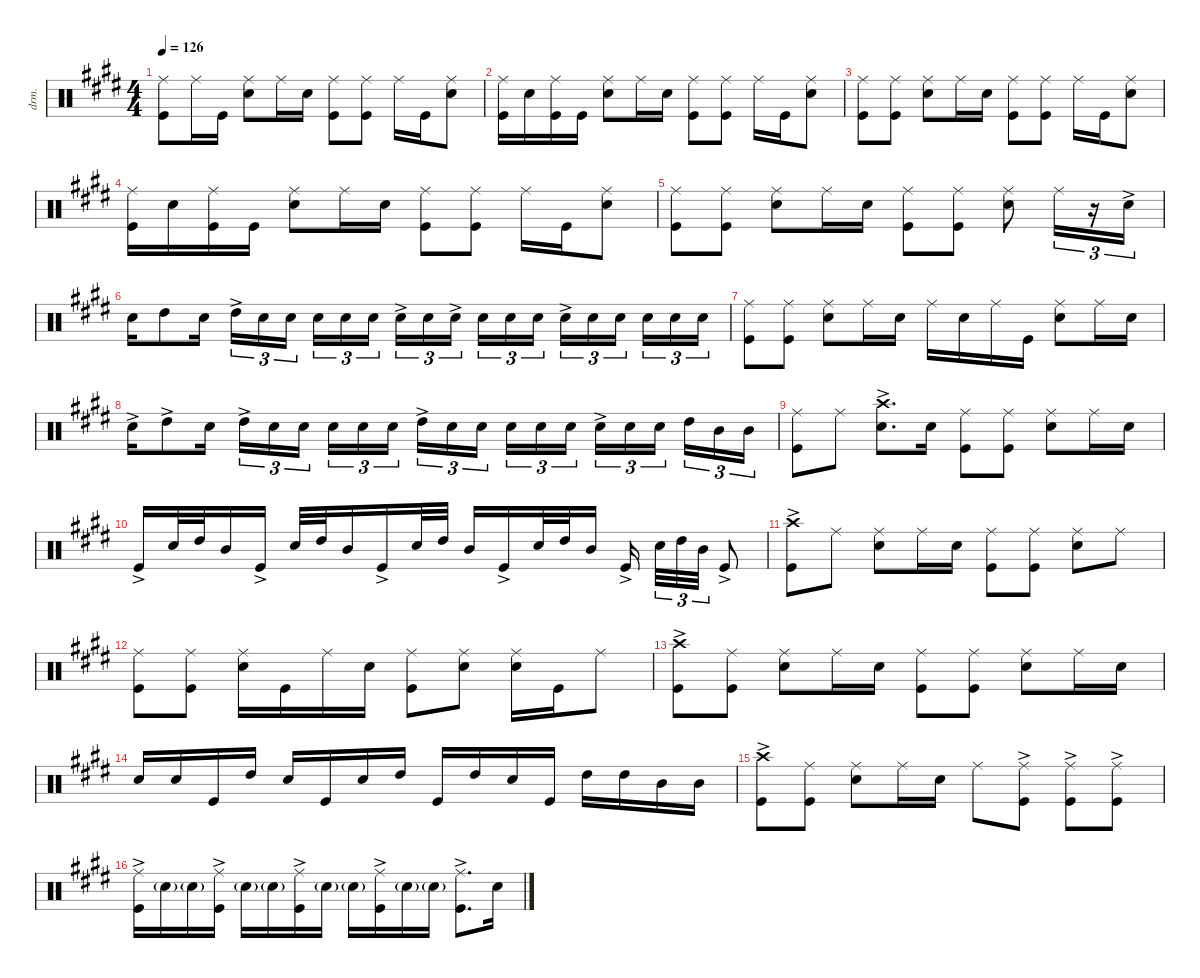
\defaultSystemsLayout 4
\hideDynamics
\bracketExtendMode nobrackets
\otherSystemsTrackNameOrientation horizontal
\track ("Mitch" "drm.") {instrument percussion}
\staff {score}
\articulation defaults
\ts (4 4)
\tempo 126
\clef neutral
\ks e
("Ride (middle)"{acc forcenatural} "Kick (hit)"{acc forcenatural}).8{dy ff beam Down} "Ride (middle)"{acc forcenatural}.16{beam Down} "Kick (hit)"{acc forcenatural}.16{beam Down} ("Ride (middle)"{acc forcenatural} "Snare (hit) 2"{acc forcenatural}).8{beam Down} "Ride (middle)"{acc forcenatural}.16{beam Down} "Snare (hit) 2"{acc forcenatural}.16{beam Down} ("Ride (middle)"{acc forcenatural} "Kick (hit)"{acc forcenatural}).8{beam Down} ("Ride (middle)"{acc forcenatural} "Kick (hit)"{acc forcenatural}).8{beam Down} "Ride (middle)"{acc forcenatural}.16{beam Down} "Kick (hit)"{acc forcenatural}.16{beam Down} ("Ride (middle)"{acc forcenatural} "Snare (hit) 2"{acc forcenatural}).8{beam Down} |
("Ride (middle)"{acc forcenatural} "Kick (hit)"{acc forcenatural}).16{beam Down} "Snare (hit) 2"{acc forcenatural}.16{beam Down} ("Ride (middle)"{acc forcenatural} "Kick (hit)"{acc forcenatural}).16{beam Down} "Kick (hit)"{acc forcenatural}.16{beam Down} ("Ride (middle)"{acc forcenatural} "Snare (hit) 2"{acc forcenatural}).8{beam Down} "Ride (middle)"{acc forcenatural}.16{beam Down} "Snare (hit) 2"{acc forcenatural}.16{beam Down} ("Ride (middle)"{acc forcenatural} "Kick (hit)"{acc forcenatural}).8{beam Down} ("Ride (middle)"{acc forcenatural} "Kick (hit)"{acc forcenatural}).8{beam Down} "Ride (middle)"{acc forcenatural}.16{beam Down} "Kick (hit)"{acc forcenatural}.16{beam Down} ("Ride (middle)"{acc forcenatural} "Snare (hit) 2"{acc forcenatural}).8{beam Down} |
("Ride (middle)"{acc forcenatural} "Kick (hit)"{acc forcenatural}).8{beam Down} ("Ride (middle)"{acc forcenatural} "Kick (hit)"{acc forcenatural}).8{beam Down} ("Ride (middle)"{acc forcenatural} "Snare (hit) 2"{acc forcenatural}).8{beam Down} "Ride (middle)"{acc forcenatural}.16{beam Down} "Snare (hit) 2"{acc forcenatural}.16{beam Down} ("Ride (middle)"{acc forcenatural} "Kick (hit)"{acc forcenatural}).8{beam Down} ("Ride (middle)"{acc forcenatural} "Kick (hit)"{acc forcenatural}).8{beam Down} "Ride (middle)"{acc forcenatural}.16{beam Down} "Kick (hit)"{acc forcenatural}.16{beam Down} ("Ride (middle)"{acc forcenatural} "Snare (hit) 2"{acc forcenatural}).8{beam Down} |
("Ride (middle)"{acc forcenatural} "Kick (hit)"{acc forcenatural}).16{beam Down} "Snare (hit) 2"{acc forcenatural}.16{beam Down} ("Ride (middle)"{acc forcenatural} "Kick (hit)"{acc forcenatural}).16{beam Down} "Kick (hit)"{acc forcenatural}.16{beam Down} ("Ride (middle)"{acc forcenatural} "Snare (hit) 2"{acc forcenatural}).8{beam Down} "Ride (middle)"{acc forcenatural}.16{beam Down} "Snare (hit) 2"{acc forcenatural}.16{beam Down} ("Ride (middle)"{acc forcenatural} "Kick (hit)"{acc forcenatural}).8{beam Down} ("Ride (middle)"{acc forcenatural} "Kick (hit)"{acc forcenatural}).8{beam Down} "Ride (middle)"{acc forcenatural}.16{beam Down} "Kick (hit)"{acc forcenatural}.16{beam Down} ("Ride (middle)"{acc forcenatural} "Snare (hit) 2"{acc forcenatural}).8{beam Down} |
("Ride (middle)"{acc forcenatural} "Kick (hit)"{acc forcenatural}).8{beam Down} ("Ride (middle)"{acc forcenatural} "Kick (hit)"{acc forcenatural}).8{beam Down} ("Ride (middle)"{acc forcenatural} "Snare (hit) 2"{acc forcenatural}).8{beam Down} "Ride (middle)"{acc forcenatural}.16{beam Down} "Snare (hit) 2"{acc forcenatural}.16{beam Down} ("Ride (middle)"{acc forcenatural} "Kick (hit)"{acc forcenatural}).8{beam Down} ("Ride (middle)"{acc forcenatural} "Kick (hit)"{acc forcenatural}).8{beam Down} ("Ride (middle)"{acc forcenatural} "Snare (hit) 2"{acc forcenatural}).8{beam Down} "Ride (middle)"{acc forcenatural}.16{tu (3 2) beam Down} r.16{tu (3 2) beam Down} "Snare (hit) 2"{ac acc forcenatural}.16{tu (3 2) beam Down} |
"Snare (hit) 2"{acc forcenatural}.16{beam Down} "High Tom (hit)"{acc forcenatural}.8{beam Down} "Snare (hit) 2"{acc forcenatural}.16{beam Down} "High Tom (hit)"{ac acc forcenatural}.16{tu (3 2) beam Down} "Snare (hit) 2"{acc forcenatural}.16{tu (3 2) beam Down} "Snare (hit) 2"{acc forcenatural}.16{tu (3 2) beam Down} "Snare (hit) 2"{acc forcenatural}.16{tu (3 2) beam Down} "Snare (hit) 2"{acc forcenatural}.16{tu (3 2) beam Down} "Snare (hit) 2"{acc forcenatural}.16{tu (3 2) beam Down} "Snare (hit) 2"{ac acc forcenatural}.16{tu (3 2) beam Down} "Snare (hit) 2"{acc forcenatural}.16{tu (3 2) beam Down} "Snare (hit) 2"{ac acc forcenatural}.16{tu (3 2) beam Down} "Snare (hit) 2"{acc forcenatural}.16{tu (3 2) beam Down} "Snare (hit) 2"{acc forcenatural}.16{tu (3 2) beam Down} "Snare (hit) 2"{acc forcenatural}.16{tu (3 2) beam Down} "Snare (hit) 2"{ac acc forcenatural}.16{tu (3 2) beam Down} "Snare (hit) 2"{acc forcenatural}.16{tu (3 2) beam Down} "Snare (hit) 2"{acc forcenatural}.16{tu (3 2) beam Down} "Snare (hit) 2"{acc forcenatural}.16{tu (3 2) beam Down} "Snare (hit) 2"{acc forcenatural}.16{tu (3 2) beam Down} "Snare (hit) 2"{acc forcenatural}.16{tu (3 2) beam Down} |
("Ride (middle)"{acc forcenatural} "Kick (hit)"{acc forcenatural}).8{beam Down} ("Ride (middle)"{acc forcenatural} "Kick (hit)"{acc forcenatural}).8{beam Down} ("Ride (middle)"{acc forcenatural} "Snare (hit) 2"{acc forcenatural}).8{beam Down} "Ride (middle)"{acc forcenatural}.16{beam Down} "Snare (hit) 2"{acc forcenatural}.16{beam Down} "Ride (middle)"{acc forcenatural}.16{beam Down} "Snare (hit) 2"{acc forcenatural}.16{beam Down} "Ride (middle)"{acc forcenatural}.16{beam Down} "Kick (hit)"{acc forcenatural}.16{beam Down} ("Ride (middle)"{acc forcenatural} "Snare (hit) 2"{acc forcenatural}).8{beam Down} "Ride (middle)"{acc forcenatural}.16{beam Down} "Snare (hit) 2"{acc forcenatural}.16{beam Down} |
"Snare (hit) 2"{ac acc forcenatural}.16{beam Down} "High Tom (hit)"{ac acc forcenatural}.8{beam Down} "Snare (hit) 2"{acc forcenatural}.16{beam Down} "High Tom (hit)"{ac acc forcenatural}.16{tu (3 2) beam Down} "Snare (hit) 2"{acc forcenatural}.16{tu (3 2) beam Down} "Snare (hit) 2"{acc forcenatural}.16{tu (3 2) beam Down} "Snare (hit) 2"{acc forcenatural}.16{tu (3 2) beam Down} "Snare (hit) 2"{acc forcenatural}.16{tu (3 2) beam Down} "Snare (hit) 2"{acc forcenatural}.16{tu (3 2) beam Down} "High Tom (hit)"{ac acc forcenatural}.16{tu (3 2) beam Down} "Snare (hit) 2"{acc forcenatural}.16{tu (3 2) beam Down} "Snare (hit) 2"{acc forcenatural}.16{tu (3 2) beam Down} "Snare (hit) 2"{acc forcenatural}.16{tu (3 2) beam Down} "Snare (hit) 2"{acc forcenatural}.16{tu (3 2) beam Down} "Snare (hit) 2"{acc forcenatural}.16{tu (3 2) beam Down} "Snare (hit) 2"{ac acc forcenatural}.16{tu (3 2) beam Down} "Snare (hit) 2"{acc forcenatural}.16{tu (3 2) beam Down} "Snare (hit) 2"{acc forcenatural}.16{tu (3 2) beam Down} "High Tom (hit)"{acc forcenatural}.16{tu (3 2) beam Down} "Mid Tom (hit)"{acc forcenatural}.16{tu (3 2) beam Down} "Mid Tom (hit)"{acc forcenatural}.16{tu (3 2) beam Down} |
("Ride (middle)"{acc forcenatural} "Kick (hit)"{acc forcenatural}).8{beam Down} "Ride (middle)"{acc forcenatural}.8{beam Down} ("Crash high (hit)"{ac acc forcenatural} "Snare (hit) 2"{acc forcenatural}).8{d beam Down} "Snare (hit) 2"{acc forcenatural}.16{beam Down} ("Ride (middle)"{acc forcenatural} "Kick (hit)"{acc forcenatural}).8{beam Down} ("Ride (middle)"{acc forcenatural} "Kick (hit)"{acc forcenatural}).8{beam Down} ("Ride (middle)"{acc forcenatural} "Snare (hit) 2"{acc forcenatural}).8{beam Down} "Ride (middle)"{acc forcenatural}.16{beam Down} "Snare (hit) 2"{acc forcenatural}.16{beam Down} |
"Kick (hit)"{ac acc forcenatural}.16{beam Up} "Snare (hit) 2"{acc forcenatural}.32{beam Up} "High Tom (hit)"{acc forcenatural}.32{beam Up} "Mid Tom (hit)"{acc forcenatural}.16{beam Up} "Kick (hit)"{ac acc forcenatural}.16{beam Up} "Snare (hit) 2"{acc forcenatural}.32{beam Up} "High Tom (hit)"{acc forcenatural}.32{beam Up} "Mid Tom (hit)"{acc forcenatural}.16{beam Up} "Kick (hit)"{ac acc forcenatural}.16{beam Up} "Snare (hit) 2"{acc forcenatural}.32{beam Up} "High Tom (hit)"{acc forcenatural}.32{beam Up} "Mid Tom (hit)"{acc forcenatural}.16{beam Up} "Kick (hit)"{ac acc forcenatural}.16{beam Up} "Snare (hit) 2"{acc forcenatural}.32{beam Up} "High Tom (hit)"{acc forcenatural}.32{beam Up} "Mid Tom (hit)"{acc forcenatural}.16{beam Up} "Kick (hit)"{ac acc forcenatural}.16{beam Up} "Snare (hit) 2"{acc forcenatural}.32{tu (3 2) beam Down} "High Tom (hit)"{acc forcenatural}.32{tu (3 2) beam Down} "Mid Tom (hit)"{acc forcenatural}.32{tu (3 2) beam Down} "Kick (hit)"{ac acc forcenatural}.8{beam Up} |
("Crash high (hit)"{ac acc forcenatural} "Kick (hit)"{acc forcenatural}).8{beam Down} "Ride (middle)"{acc forcenatural}.8{beam Down} ("Ride (middle)"{acc forcenatural} "Snare (hit) 2"{acc forcenatural}).8{beam Down} "Ride (middle)"{acc forcenatural}.16{beam Down} "Snare (hit) 2"{acc forcenatural}.16{beam Down} ("Ride (middle)"{acc forcenatural} "Kick (hit)"{acc forcenatural}).8{beam Down} ("Ride (middle)"{acc forcenatural} "Kick (hit)"{acc forcenatural}).8{beam Down} ("Ride (middle)"{acc forcenatural} "Snare (hit) 2"{acc forcenatural}).8{beam Down} "Ride (middle)"{acc forcenatural}.8{beam Down} |
("Ride (middle)"{acc forcenatural} "Kick (hit)"{acc forcenatural}).8{beam Down} ("Ride (middle)"{acc forcenatural} "Kick (hit)"{acc forcenatural}).8{beam Down} ("Ride (middle)"{acc forcenatural} "Snare (hit) 2"{acc forcenatural}).16{beam Down} "Kick (hit)"{acc forcenatural}.16{beam Down} "Ride (middle)"{acc forcenatural}.16{beam Down} "Snare (hit) 2"{acc forcenatural}.16{beam Down} ("Ride (middle)"{acc forcenatural} "Kick (hit)"{acc forcenatural}).8{beam Down} ("Ride (middle)"{acc forcenatural} "Snare (hit) 2"{acc forcenatural}).8{beam Down} ("Ride (middle)"{acc forcenatural} "Snare (hit) 2"{acc forcenatural}).16{beam Down} "Kick (hit)"{acc forcenatural}.16{beam Down} "Ride (middle)"{acc forcenatural}.8{beam Down} |
("Crash high (hit)"{ac acc forcenatural} "Kick (hit)"{acc forcenatural}).8{beam Down} ("Ride (middle)"{acc forcenatural} "Kick (hit)"{acc forcenatural}).8{beam Down} ("Ride (middle)"{acc forcenatural} "Snare (hit) 2"{acc forcenatural}).8{beam Down} "Ride (middle)"{acc forcenatural}.16{beam Down} "Snare (hit) 2"{acc forcenatural}.16{beam Down} ("Ride (middle)"{acc forcenatural} "Kick (hit)"{acc forcenatural}).8{beam Down} ("Ride (middle)"{acc forcenatural} "Kick (hit)"{acc forcenatural}).8{beam Down} ("Ride (middle)"{acc forcenatural} "Snare (hit) 2"{acc forcenatural}).8{beam Down} "Ride (middle)"{acc forcenatural}.16{beam Down} "Snare (hit) 2"{acc forcenatural}.16{beam Down} |
"Snare (hit) 2"{acc forcenatural}.16{beam Up} "Snare (hit) 2"{acc forcenatural}.16{beam Up} "Kick (hit)"{acc forcenatural}.16{beam Up} "High Tom (hit)"{acc forcenatural}.16{beam Up} "Snare (hit) 2"{acc forcenatural}.16{beam Up} "Kick (hit)"{acc forcenatural}.16{beam Up} "Snare (hit) 2"{acc forcenatural}.16{beam Up} "High Tom (hit)"{acc forcenatural}.16{beam Up} "Kick (hit)"{acc forcenatural}.16{beam Up} "High Tom (hit)"{acc forcenatural}.16{beam Up} "Snare (hit) 2"{acc forcenatural}.16{beam Up} "Kick (hit)"{acc forcenatural}.16{beam Up} "High Tom (hit)"{acc forcenatural}.16{beam Down} "High Tom (hit)"{acc forcenatural}.16{beam Down} "Mid Tom (hit)"{acc forcenatural}.16{beam Down} "Mid Tom (hit)"{acc forcenatural}.16{beam Down} |
("Crash high (hit)"{ac acc forcenatural} "Kick (hit)"{acc forcenatural}).8{beam Down} ("Ride (middle)"{acc forcenatural} "Kick (hit)"{acc forcenatural}).8{beam Down} ("Ride (middle)"{acc forcenatural} "Snare (hit) 2"{acc forcenatural}).8{beam Down} "Ride (middle)"{acc forcenatural}.16{beam Down} "Snare (hit) 2"{acc forcenatural}.16{beam Down} "Ride (middle)"{acc forcenatural}.8{beam Down} ("Ride (middle)"{ac acc forcenatural} "Kick (hit)"{acc forcenatural}).8{beam Down} ("Ride (middle)"{ac acc forcenatural} "Kick (hit)"{acc forcenatural}).8{beam Down} ("Ride (middle)"{ac acc forcenatural} "Kick (hit)"{acc forcenatural}).8{beam Down} |
("Ride (middle)"{ac acc forcenatural} "Kick (hit)"{acc forcenatural}).16{beam Down} "Snare (hit) 2"{g acc forcenatural}.16{dy f beam Down} "Snare (hit) 2"{g acc forcenatural}.16{beam Down} ("Ride (middle)"{ac acc forcenatural} "Kick (hit)"{acc forcenatural}).16{dy ff beam Down} "Snare (hit) 2"{g acc forcenatural}.16{dy f beam Down} "Snare (hit) 2"{g acc forcenatural}.16{beam Down} ("Ride (middle)"{ac acc forcenatural} "Kick (hit)"{acc forcenatural}).16{dy ff beam Down} "Snare (hit) 2"{g acc forcenatural}.16{dy f beam Down} "Snare (hit) 2"{g acc forcenatural}.16{beam Down} ("Ride (middle)"{ac acc forcenatural} "Kick (hit)"{acc forcenatural}).16{dy ff beam Down} "Snare (hit) 2"{g acc forcenatural}.16{dy f beam Down} "Snare (hit) 2"{g acc forcenatural}.16{beam Down} ("Ride (middle)"{ac acc forcenatural} "Kick (hit)"{acc forcenatural}).8{d dy ff beam Down} "Snare (hit) 2"{acc forcenatural}.16{beam Down}
